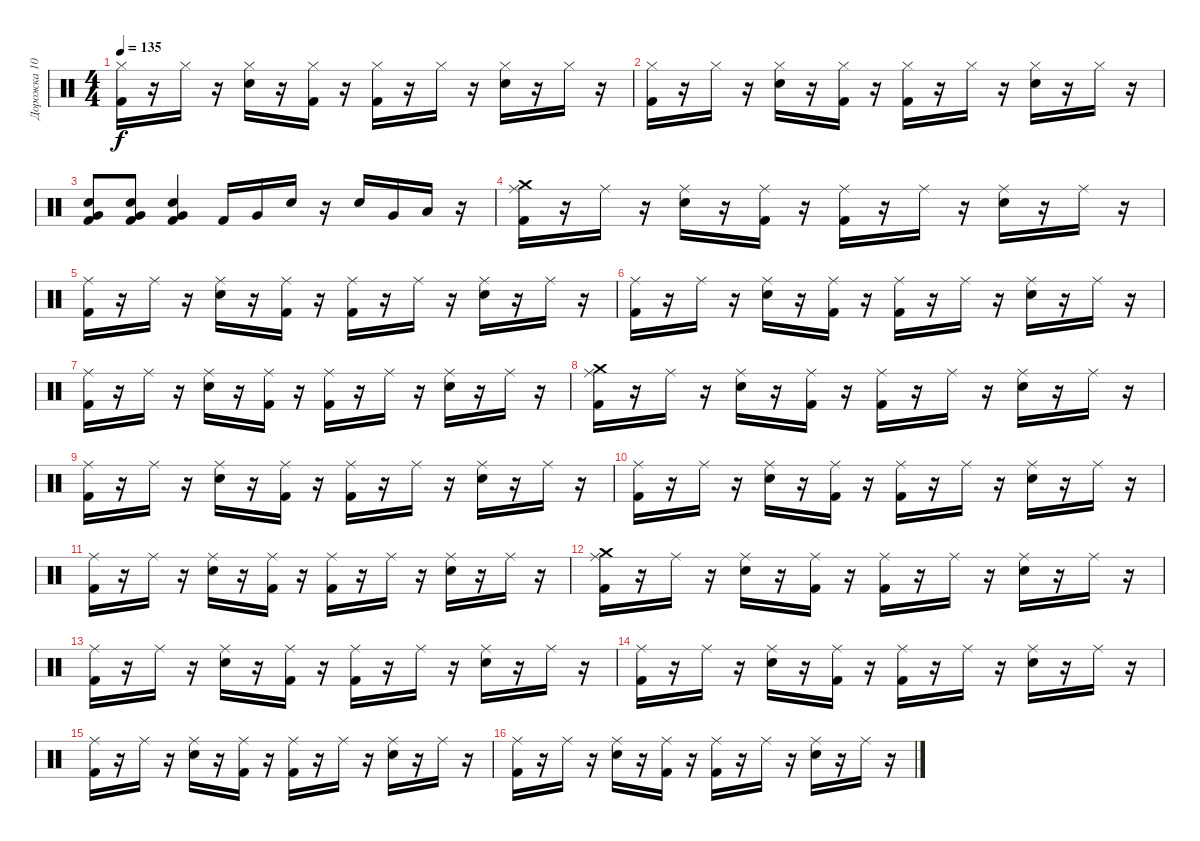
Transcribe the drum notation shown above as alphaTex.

\track ("Дорожка 10" "Дорожка 10") {instrument percussion}
\staff {score}
\articulation defaults
\ts (4 4)
\tempo 135
\clef neutral
\ks c
("Hi-Hat (closed)" "Kick (hit) 2").16{dy f} r.16 "Hi-Hat (closed)".16 r.16 ("Hi-Hat (closed)" "Electric Snare (hit)").16 r.16 ("Hi-Hat (closed)" "Kick (hit) 2").16 r.16 ("Hi-Hat (closed)" "Kick (hit) 2").16 r.16 "Hi-Hat (closed)".16 r.16 ("Hi-Hat (closed)" "Electric Snare (hit)").16 r.16 "Hi-Hat (closed)".16 r.16 |
("Hi-Hat (closed)" "Kick (hit) 2").16 r.16 "Hi-Hat (closed)".16 r.16 ("Hi-Hat (closed)" "Electric Snare (hit)").16 r.16 ("Hi-Hat (closed)" "Kick (hit) 2").16 r.16 ("Hi-Hat (closed)" "Kick (hit) 2").16 r.16 "Hi-Hat (closed)".16 r.16 ("Hi-Hat (closed)" "Electric Snare (hit)").16 r.16 "Hi-Hat (closed)".16 r.16 |
("Very Low Tom (hit)" "Kick (hit) 2" "Electric Snare (hit)").8 ("Kick (hit) 2" "Very Low Tom (hit)" "Electric Snare (hit)").8 ("Kick (hit) 2" "Very Low Tom (hit)" "Electric Snare (hit)").4 "Kick (hit) 2".16 "Very Low Tom (hit)".16 "Electric Snare (hit)".16 r.16 "Snare (hit) 2".16 "Very Low Tom (hit)".16 "Low Floor Tom (hit)".16 r.16 |
("Ride (middle)" "Crash medium (hit)" "Kick (hit) 2").16 r.16 "Ride (middle)".16 r.16 ("Ride (middle)" "Electric Snare (hit)").16 r.16 ("Ride (middle)" "Kick (hit) 2").16 r.16 ("Ride (middle)" "Kick (hit) 2").16 r.16 "Ride (middle)".16 r.16 ("Ride (middle)" "Electric Snare (hit)").16 r.16 "Ride (middle)".16 r.16 |
("Ride (middle)" "Kick (hit) 2").16 r.16 "Ride (middle)".16 r.16 ("Ride (middle)" "Electric Snare (hit)").16 r.16 ("Ride (middle)" "Kick (hit) 2").16 r.16 ("Ride (middle)" "Kick (hit) 2").16 r.16 "Ride (middle)".16 r.16 ("Ride (middle)" "Electric Snare (hit)").16 r.16 "Ride (middle)".16 r.16 |
("Ride (middle)" "Kick (hit) 2").16 r.16 "Ride (middle)".16 r.16 ("Ride (middle)" "Electric Snare (hit)").16 r.16 ("Ride (middle)" "Kick (hit) 2").16 r.16 ("Ride (middle)" "Kick (hit) 2").16 r.16 "Ride (middle)".16 r.16 ("Ride (middle)" "Electric Snare (hit)").16 r.16 "Ride (middle)".16 r.16 |
("Ride (middle)" "Kick (hit) 2").16 r.16 "Ride (middle)".16 r.16 ("Ride (middle)" "Electric Snare (hit)").16 r.16 ("Ride (middle)" "Kick (hit) 2").16 r.16 ("Ride (middle)" "Kick (hit) 2").16 r.16 "Ride (middle)".16 r.16 ("Ride (middle)" "Electric Snare (hit)").16 r.16 "Ride (middle)".16 r.16 |
("Crash medium (hit)" "Kick (hit) 2" "Ride (middle)").16 r.16 "Ride (middle)".16 r.16 ("Electric Snare (hit)" "Ride (middle)").16 r.16 ("Kick (hit) 2" "Ride (middle)").16 r.16 ("Kick (hit) 2" "Ride (middle)").16 r.16 "Ride (middle)".16 r.16 ("Electric Snare (hit)" "Ride (middle)").16 r.16 "Ride (middle)".16 r.16 |
("Kick (hit) 2" "Ride (middle)").16 r.16 "Ride (middle)".16 r.16 ("Electric Snare (hit)" "Ride (middle)").16 r.16 ("Kick (hit) 2" "Ride (middle)").16 r.16 ("Kick (hit) 2" "Ride (middle)").16 r.16 "Ride (middle)".16 r.16 ("Electric Snare (hit)" "Ride (middle)").16 r.16 "Ride (middle)".16 r.16 |
("Kick (hit) 2" "Ride (middle)").16 r.16 "Ride (middle)".16 r.16 ("Electric Snare (hit)" "Ride (middle)").16 r.16 ("Kick (hit) 2" "Ride (middle)").16 r.16 ("Kick (hit) 2" "Ride (middle)").16 r.16 "Ride (middle)".16 r.16 ("Electric Snare (hit)" "Ride (middle)").16 r.16 "Ride (middle)".16 r.16 |
("Kick (hit) 2" "Ride (middle)").16 r.16 "Ride (middle)".16 r.16 ("Electric Snare (hit)" "Ride (middle)").16 r.16 ("Kick (hit) 2" "Ride (middle)").16 r.16 ("Kick (hit) 2" "Ride (middle)").16 r.16 "Ride (middle)".16 r.16 ("Electric Snare (hit)" "Ride (middle)").16 r.16 "Ride (middle)".16 r.16 |
("Crash medium (hit)" "Kick (hit) 2" "Ride (middle)").16 r.16 "Ride (middle)".16 r.16 ("Electric Snare (hit)" "Ride (middle)").16 r.16 ("Kick (hit) 2" "Ride (middle)").16 r.16 ("Kick (hit) 2" "Ride (middle)").16 r.16 "Ride (middle)".16 r.16 ("Electric Snare (hit)" "Ride (middle)").16 r.16 "Ride (middle)".16 r.16 |
("Kick (hit) 2" "Ride (middle)").16 r.16 "Ride (middle)".16 r.16 ("Electric Snare (hit)" "Ride (middle)").16 r.16 ("Kick (hit) 2" "Ride (middle)").16 r.16 ("Kick (hit) 2" "Ride (middle)").16 r.16 "Ride (middle)".16 r.16 ("Electric Snare (hit)" "Ride (middle)").16 r.16 "Ride (middle)".16 r.16 |
("Kick (hit) 2" "Ride (middle)").16 r.16 "Ride (middle)".16 r.16 ("Electric Snare (hit)" "Ride (middle)").16 r.16 ("Kick (hit) 2" "Ride (middle)").16 r.16 ("Kick (hit) 2" "Ride (middle)").16 r.16 "Ride (middle)".16 r.16 ("Electric Snare (hit)" "Ride (middle)").16 r.16 "Ride (middle)".16 r.16 |
("Kick (hit) 2" "Ride (middle)").16 r.16 "Ride (middle)".16 r.16 ("Electric Snare (hit)" "Ride (middle)").16 r.16 ("Kick (hit) 2" "Ride (middle)").16 r.16 ("Kick (hit) 2" "Ride (middle)").16 r.16 "Ride (middle)".16 r.16 ("Electric Snare (hit)" "Ride (middle)").16 r.16 "Ride (middle)".16 r.16 |
("Kick (hit) 2" "Ride (middle)").16 r.16 "Ride (middle)".16 r.16 ("Electric Snare (hit)" "Ride (middle)").16 r.16 ("Kick (hit) 2" "Ride (middle)").16 r.16 ("Kick (hit) 2" "Ride (middle)").16 r.16 "Ride (middle)".16 r.16 ("Electric Snare (hit)" "Ride (middle)").16 r.16 "Ride (middle)".16 r.16
